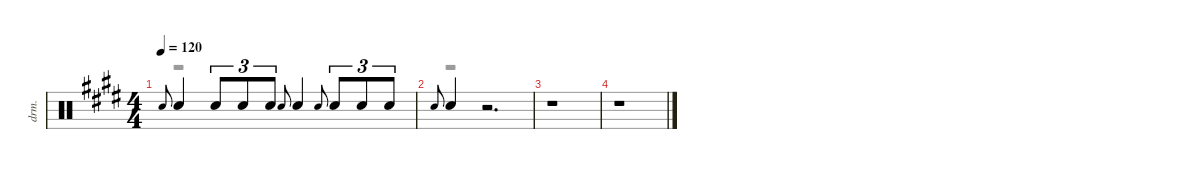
\defaultSystemsLayout 4
\hideDynamics
\bracketExtendMode nobrackets
\track ("Drums" "drm.") {instrument percussion}
\staff {score}
\articulation defaults
\voice
\ts (4 4)
\tempo 120
\clef neutral
\ks e "Snare (hit) 2"{acc forcenatural}.8{gr onbeat dy mf} "Snare (hit) 2"{acc forcenatural}.4 "Snare (hit) 2"{acc forcenatural}.8{tu (3 2)} "Snare (hit) 2"{acc forcenatural}.8{tu (3 2)} "Snare (hit) 2"{acc forcenatural}.8{tu (3 2)} "Snare (hit) 2"{acc forcenatural}.8{gr onbeat} "Snare (hit) 2"{acc forcenatural}.4 "Snare (hit) 2"{acc forcenatural}.8{gr onbeat} "Snare (hit) 2"{acc forcenatural}.8{tu (3 2)} "Snare (hit) 2"{acc forcenatural}.8{tu (3 2)} "Snare (hit) 2"{acc forcenatural}.8{tu (3 2)}
|
"Snare (hit) 2"{acc forcenatural}.8{gr onbeat} "Snare (hit) 2"{acc forcenatural}.4 r.2{d} |
r.1 |
r.1
\voice
\clef neutral
\ottava regular
\simile none
\ks e
r.1{dy mf} |
r.1 |
r.1 |
r.1
